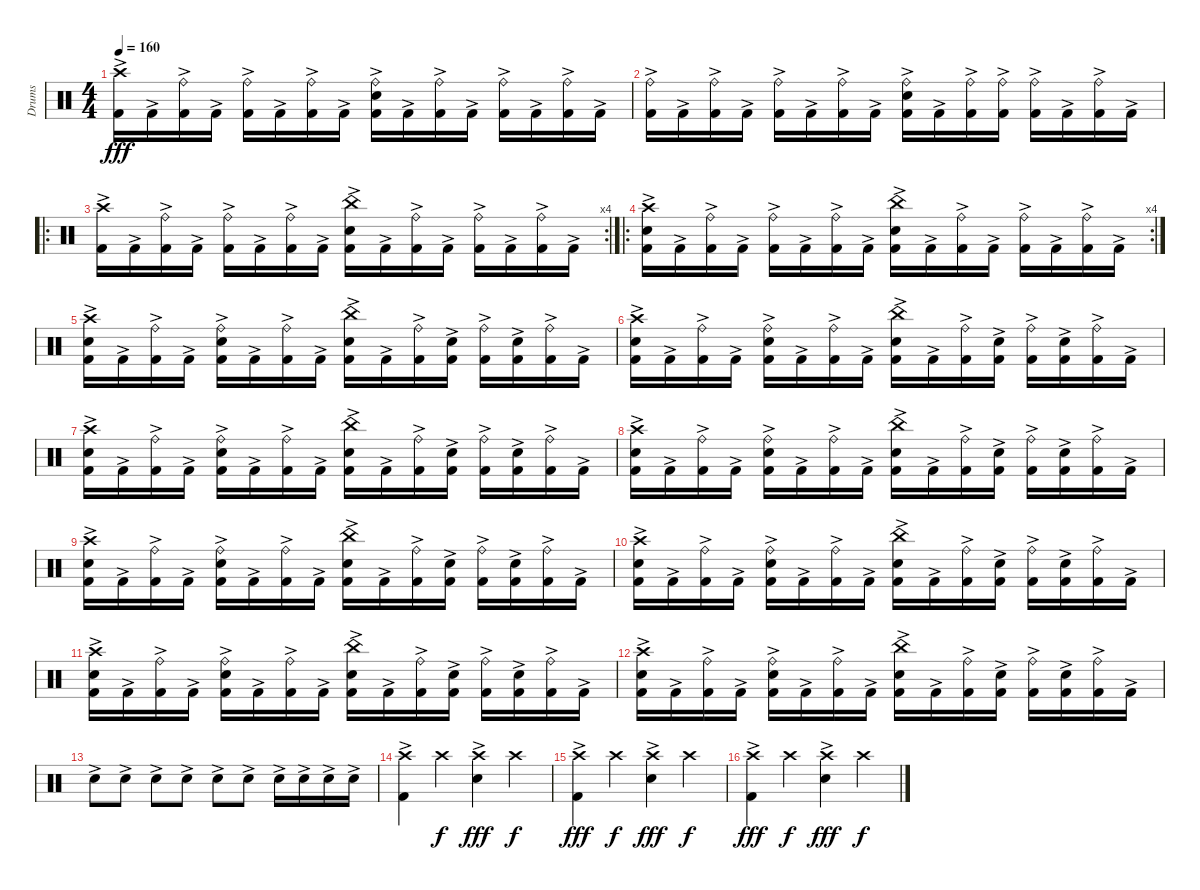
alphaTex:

\track ("Drums" "Drums") {instrument percussion}
\staff {score}
\articulation defaults
\ts (4 4)
\tempo 160
\clef neutral
\ks c
("Crash high (hit)"{ac} "Kick (hit) 2"{ac}).16{dy fff} "Kick (hit) 2"{ac}.16 ("Ride (bell)" "Kick (hit) 2"{ac}).16 "Kick (hit) 2"{ac}.16 ("Ride (bell)"{ac} "Kick (hit) 2"{ac}).16 "Kick (hit) 2"{ac}.16 ("Ride (bell)" "Kick (hit) 2"{ac}).16 "Kick (hit) 2"{ac}.16 ("Ride (bell)"{ac} "Snare (hit) 2"{ac} "Kick (hit) 2"{ac}).16 "Kick (hit) 2"{ac}.16 ("Ride (bell)" "Kick (hit) 2"{ac}).16 "Kick (hit) 2"{ac}.16 ("Ride (bell)"{ac} "Kick (hit) 2"{ac}).16 "Kick (hit) 2"{ac}.16 ("Ride (bell)" "Kick (hit) 2"{ac}).16 "Kick (hit) 2"{ac}.16 |
("Ride (bell)"{ac} "Kick (hit) 2"{ac}).16 "Kick (hit) 2"{ac}.16 ("Ride (bell)" "Kick (hit) 2"{ac}).16 "Kick (hit) 2"{ac}.16 ("Ride (bell)"{ac} "Kick (hit) 2"{ac}).16 "Kick (hit) 2"{ac}.16 ("Ride (bell)" "Kick (hit) 2"{ac}).16 "Kick (hit) 2"{ac}.16 ("Ride (bell)"{ac} "Snare (hit) 2"{ac} "Kick (hit) 2"{ac}).16 "Kick (hit) 2"{ac}.16 ("Ride (bell)"{ac} "Kick (hit) 2"{ac}).16 ("Ride (bell)"{ac} "Kick (hit) 2"{ac}).16 ("Ride (bell)" "Kick (hit) 2"{ac}).16 "Kick (hit) 2"{ac}.16 ("Ride (bell)"{ac} "Kick (hit) 2"{ac}).16 "Kick (hit) 2"{ac}.16 |
\ro
\rc 4
("Crash high (hit)"{ac} "Kick (hit) 2"{ac}).16 "Kick (hit) 2"{ac}.16 ("Ride (bell)" "Kick (hit) 2"{ac}).16 "Kick (hit) 2"{ac}.16 ("Ride (bell)"{ac} "Kick (hit) 2"{ac}).16 "Kick (hit) 2"{ac}.16 ("Ride (bell)" "Kick (hit) 2"{ac}).16 "Kick (hit) 2"{ac}.16 ("China (hit)"{ac} "Snare (hit) 2"{ac} "Kick (hit) 2"{ac}).16 "Kick (hit) 2"{ac}.16 ("Ride (bell)" "Kick (hit) 2"{ac}).16 "Kick (hit) 2"{ac}.16 ("Ride (bell)"{ac} "Kick (hit) 2"{ac}).16 "Kick (hit) 2"{ac}.16 ("Ride (bell)" "Kick (hit) 2"{ac}).16 "Kick (hit) 2"{ac}.16 |
\ro
\rc 4
("Crash high (hit)"{ac} "Snare (hit) 2"{ac} "Kick (hit) 2"{ac}).16 "Kick (hit) 2"{ac}.16 ("Ride (bell)" "Kick (hit) 2"{ac}).16 "Kick (hit) 2"{ac}.16 ("Ride (bell)"{ac} "Kick (hit) 2"{ac}).16 "Kick (hit) 2"{ac}.16 ("Ride (bell)" "Kick (hit) 2"{ac}).16 "Kick (hit) 2"{ac}.16 ("China (hit)"{ac} "Snare (hit) 2"{ac} "Kick (hit) 2"{ac}).16 "Kick (hit) 2"{ac}.16 ("Ride (bell)" "Kick (hit) 2"{ac}).16 "Kick (hit) 2"{ac}.16 ("Ride (bell)"{ac} "Kick (hit) 2"{ac}).16 "Kick (hit) 2"{ac}.16 ("Ride (bell)" "Kick (hit) 2"{ac}).16 "Kick (hit) 2"{ac}.16 |
("Crash high (hit)"{ac} "Snare (hit) 2"{ac} "Kick (hit) 2"{ac}).16 "Kick (hit) 2"{ac}.16 ("Ride (bell)" "Kick (hit) 2"{ac}).16 "Kick (hit) 2"{ac}.16 ("Ride (bell)"{ac} "Snare (hit) 2"{ac} "Kick (hit) 2"{ac}).16 "Kick (hit) 2"{ac}.16 ("Ride (bell)" "Kick (hit) 2"{ac}).16 "Kick (hit) 2"{ac}.16 ("China (hit)"{ac} "Snare (hit) 2"{ac} "Kick (hit) 2"{ac}).16 "Kick (hit) 2"{ac}.16 ("Ride (bell)" "Kick (hit) 2"{ac}).16 ("Snare (hit) 2"{ac} "Kick (hit) 2"{ac}).16 ("Ride (bell)"{ac} "Kick (hit) 2"{ac}).16 ("Snare (hit) 2"{ac} "Kick (hit) 2"{ac}).16 ("Ride (bell)" "Kick (hit) 2"{ac}).16 "Kick (hit) 2"{ac}.16 |
("Crash high (hit)"{ac} "Snare (hit) 2"{ac} "Kick (hit) 2"{ac}).16 "Kick (hit) 2"{ac}.16 ("Ride (bell)" "Kick (hit) 2"{ac}).16 "Kick (hit) 2"{ac}.16 ("Ride (bell)"{ac} "Snare (hit) 2"{ac} "Kick (hit) 2"{ac}).16 "Kick (hit) 2"{ac}.16 ("Ride (bell)" "Kick (hit) 2"{ac}).16 "Kick (hit) 2"{ac}.16 ("China (hit)"{ac} "Snare (hit) 2"{ac} "Kick (hit) 2"{ac}).16 "Kick (hit) 2"{ac}.16 ("Ride (bell)" "Kick (hit) 2"{ac}).16 ("Snare (hit) 2"{ac} "Kick (hit) 2"{ac}).16 ("Ride (bell)"{ac} "Kick (hit) 2"{ac}).16 ("Snare (hit) 2"{ac} "Kick (hit) 2"{ac}).16 ("Ride (bell)" "Kick (hit) 2"{ac}).16 "Kick (hit) 2"{ac}.16 |
("Crash high (hit)"{ac} "Snare (hit) 2"{ac} "Kick (hit) 2"{ac}).16 "Kick (hit) 2"{ac}.16 ("Ride (bell)" "Kick (hit) 2"{ac}).16 "Kick (hit) 2"{ac}.16 ("Ride (bell)"{ac} "Snare (hit) 2"{ac} "Kick (hit) 2"{ac}).16 "Kick (hit) 2"{ac}.16 ("Ride (bell)" "Kick (hit) 2"{ac}).16 "Kick (hit) 2"{ac}.16 ("China (hit)"{ac} "Snare (hit) 2"{ac} "Kick (hit) 2"{ac}).16 "Kick (hit) 2"{ac}.16 ("Ride (bell)" "Kick (hit) 2"{ac}).16 ("Snare (hit) 2"{ac} "Kick (hit) 2"{ac}).16 ("Ride (bell)"{ac} "Kick (hit) 2"{ac}).16 ("Snare (hit) 2"{ac} "Kick (hit) 2"{ac}).16 ("Ride (bell)" "Kick (hit) 2"{ac}).16 "Kick (hit) 2"{ac}.16 |
("Crash high (hit)"{ac} "Snare (hit) 2"{ac} "Kick (hit) 2"{ac}).16 "Kick (hit) 2"{ac}.16 ("Ride (bell)" "Kick (hit) 2"{ac}).16 "Kick (hit) 2"{ac}.16 ("Ride (bell)"{ac} "Snare (hit) 2"{ac} "Kick (hit) 2"{ac}).16 "Kick (hit) 2"{ac}.16 ("Ride (bell)" "Kick (hit) 2"{ac}).16 "Kick (hit) 2"{ac}.16 ("China (hit)"{ac} "Snare (hit) 2"{ac} "Kick (hit) 2"{ac}).16 "Kick (hit) 2"{ac}.16 ("Ride (bell)" "Kick (hit) 2"{ac}).16 ("Snare (hit) 2"{ac} "Kick (hit) 2"{ac}).16 ("Ride (bell)"{ac} "Kick (hit) 2"{ac}).16 ("Snare (hit) 2"{ac} "Kick (hit) 2"{ac}).16 ("Ride (bell)" "Kick (hit) 2"{ac}).16 "Kick (hit) 2"{ac}.16 |
("Crash high (hit)"{ac} "Snare (hit) 2"{ac} "Kick (hit) 2"{ac}).16 "Kick (hit) 2"{ac}.16 ("Ride (bell)" "Kick (hit) 2"{ac}).16 "Kick (hit) 2"{ac}.16 ("Ride (bell)"{ac} "Snare (hit) 2"{ac} "Kick (hit) 2"{ac}).16 "Kick (hit) 2"{ac}.16 ("Ride (bell)" "Kick (hit) 2"{ac}).16 "Kick (hit) 2"{ac}.16 ("China (hit)"{ac} "Snare (hit) 2"{ac} "Kick (hit) 2"{ac}).16 "Kick (hit) 2"{ac}.16 ("Ride (bell)" "Kick (hit) 2"{ac}).16 ("Snare (hit) 2"{ac} "Kick (hit) 2"{ac}).16 ("Ride (bell)"{ac} "Kick (hit) 2"{ac}).16 ("Snare (hit) 2"{ac} "Kick (hit) 2"{ac}).16 ("Ride (bell)" "Kick (hit) 2"{ac}).16 "Kick (hit) 2"{ac}.16 |
("Crash high (hit)"{ac} "Snare (hit) 2"{ac} "Kick (hit) 2"{ac}).16 "Kick (hit) 2"{ac}.16 ("Ride (bell)" "Kick (hit) 2"{ac}).16 "Kick (hit) 2"{ac}.16 ("Ride (bell)"{ac} "Snare (hit) 2"{ac} "Kick (hit) 2"{ac}).16 "Kick (hit) 2"{ac}.16 ("Ride (bell)" "Kick (hit) 2"{ac}).16 "Kick (hit) 2"{ac}.16 ("China (hit)"{ac} "Snare (hit) 2"{ac} "Kick (hit) 2"{ac}).16 "Kick (hit) 2"{ac}.16 ("Ride (bell)" "Kick (hit) 2"{ac}).16 ("Snare (hit) 2"{ac} "Kick (hit) 2"{ac}).16 ("Ride (bell)"{ac} "Kick (hit) 2"{ac}).16 ("Snare (hit) 2"{ac} "Kick (hit) 2"{ac}).16 ("Ride (bell)" "Kick (hit) 2"{ac}).16 "Kick (hit) 2"{ac}.16 |
("Crash high (hit)"{ac} "Snare (hit) 2"{ac} "Kick (hit) 2"{ac}).16 "Kick (hit) 2"{ac}.16 ("Ride (bell)" "Kick (hit) 2"{ac}).16 "Kick (hit) 2"{ac}.16 ("Ride (bell)"{ac} "Snare (hit) 2"{ac} "Kick (hit) 2"{ac}).16 "Kick (hit) 2"{ac}.16 ("Ride (bell)" "Kick (hit) 2"{ac}).16 "Kick (hit) 2"{ac}.16 ("China (hit)"{ac} "Snare (hit) 2"{ac} "Kick (hit) 2"{ac}).16 "Kick (hit) 2"{ac}.16 ("Ride (bell)" "Kick (hit) 2"{ac}).16 ("Snare (hit) 2"{ac} "Kick (hit) 2"{ac}).16 ("Ride (bell)"{ac} "Kick (hit) 2"{ac}).16 ("Snare (hit) 2"{ac} "Kick (hit) 2"{ac}).16 ("Ride (bell)" "Kick (hit) 2"{ac}).16 "Kick (hit) 2"{ac}.16 |
("Crash high (hit)"{ac} "Snare (hit) 2"{ac} "Kick (hit) 2"{ac}).16 "Kick (hit) 2"{ac}.16 ("Ride (bell)" "Kick (hit) 2"{ac}).16 "Kick (hit) 2"{ac}.16 ("Ride (bell)"{ac} "Snare (hit) 2"{ac} "Kick (hit) 2"{ac}).16 "Kick (hit) 2"{ac}.16 ("Ride (bell)" "Kick (hit) 2"{ac}).16 "Kick (hit) 2"{ac}.16 ("China (hit)"{ac} "Snare (hit) 2"{ac} "Kick (hit) 2"{ac}).16 "Kick (hit) 2"{ac}.16 ("Ride (bell)" "Kick (hit) 2"{ac}).16 ("Snare (hit) 2"{ac} "Kick (hit) 2"{ac}).16 ("Ride (bell)"{ac} "Kick (hit) 2"{ac}).16 ("Snare (hit) 2"{ac} "Kick (hit) 2"{ac}).16 ("Ride (bell)" "Kick (hit) 2"{ac}).16 "Kick (hit) 2"{ac}.16 |
"Snare (hit) 2"{ac}.8 "Snare (hit) 2"{ac}.8 "Snare (hit) 2"{ac}.8 "Snare (hit) 2"{ac}.8 "Snare (hit) 2"{ac}.8 "Snare (hit) 2"{ac}.8 "Snare (hit) 2"{ac}.16 "Snare (hit) 2"{ac}.16 "Snare (hit) 2"{ac}.16 "Snare (hit) 2"{ac}.16 |
("Crash high (hit)" "Kick (hit) 2"{ac}).4 "Crash high (hit)".4{dy f} ("Crash high (hit)" "Snare (hit) 2"{ac}).4{dy fff} "Crash high (hit)".4{dy f} |
("Crash high (hit)" "Kick (hit) 2"{ac}).4{dy fff} "Crash high (hit)".4{dy f} ("Crash high (hit)" "Snare (hit) 2"{ac}).4{dy fff} "Crash high (hit)".4{dy f} |
("Crash high (hit)" "Kick (hit) 2"{ac}).4{dy fff} "Crash high (hit)".4{dy f} ("Crash high (hit)" "Snare (hit) 2"{ac}).4{dy fff} "Crash high (hit)".4{dy f}
